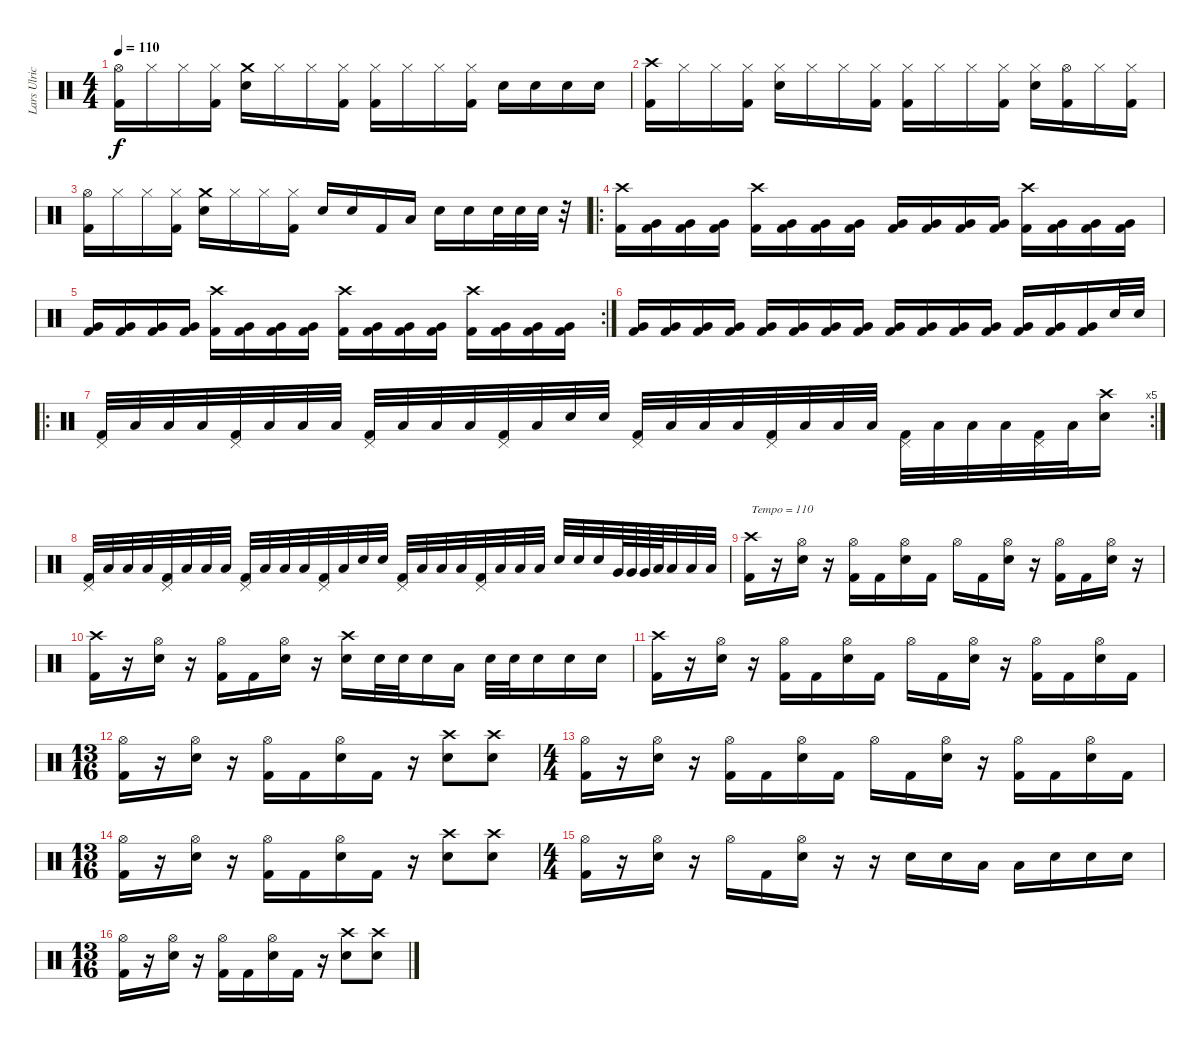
\track ("Lars Ulrich" "Lars Ulric") {instrument percussion}
\staff {score}
\articulation defaults
\ts (4 4)
\tempo 110
\clef neutral
\ks c
("Hi-Hat (open)" "Kick (hit) 2").16{dy f} "Hi-Hat (closed)".16 "Hi-Hat (closed)".16 ("Hi-Hat (closed)" "Kick (hit) 2").16 ("Crash medium (hit)" "Snare (hit) 2").16 "Hi-Hat (closed)".16 "Hi-Hat (closed)".16 ("Hi-Hat (closed)" "Kick (hit) 2").16 ("Hi-Hat (closed)" "Kick (hit) 2").16 "Hi-Hat (closed)".16 "Hi-Hat (closed)".16 ("Hi-Hat (closed)" "Kick (hit) 2").16 "Snare (hit) 2".16 "Snare (hit) 2".16 "Snare (hit) 2".16 "Snare (hit) 2".16 |
("Crash high (hit)" "Kick (hit) 2").16 "Hi-Hat (closed)".16 "Hi-Hat (closed)".16 ("Hi-Hat (closed)" "Kick (hit) 2").16 ("Hi-Hat (closed)" "Snare (hit) 2").16 "Hi-Hat (closed)".16 "Hi-Hat (closed)".16 ("Hi-Hat (closed)" "Kick (hit) 2").16 ("Hi-Hat (closed)" "Kick (hit) 2").16 "Hi-Hat (closed)".16 "Hi-Hat (closed)".16 ("Hi-Hat (closed)" "Kick (hit) 2").16 ("Hi-Hat (closed)" "Snare (hit) 2").16 ("Hi-Hat (open)" "Kick (hit) 2").16 "Hi-Hat (closed)".16 ("Hi-Hat (closed)" "Kick (hit) 2").16 |
("Hi-Hat (open)" "Kick (hit) 2").16 "Hi-Hat (closed)".16 "Hi-Hat (closed)".16 ("Hi-Hat (closed)" "Kick (hit) 2").16 ("Crash medium (hit)" "Snare (hit) 2").16 "Hi-Hat (closed)".16 "Hi-Hat (closed)".16 ("Hi-Hat (closed)" "Kick (hit) 2").16 "Snare (hit) 2".16 "Snare (hit) 2".16 "Kick (hit) 2".16 "Low Tom (hit)".16 "Snare (hit) 2".16 "Snare (hit) 2".16 "Snare (hit) 2".32 "Snare (hit) 2".32 "Snare (hit) 2".32 r.32 |
\ro
("Crash high (hit)" "Kick (hit) 2").16 ("Very Low Tom (hit)" "Kick (hit) 2").16 ("Very Low Tom (hit)" "Kick (hit) 2").16 ("Very Low Tom (hit)" "Kick (hit) 2").16 ("Crash high (hit)" "Kick (hit) 2").16 ("Very Low Tom (hit)" "Kick (hit) 2").16 ("Very Low Tom (hit)" "Kick (hit) 2").16 ("Very Low Tom (hit)" "Kick (hit) 2").16 ("Very Low Tom (hit)" "Kick (hit) 2").16 ("Very Low Tom (hit)" "Kick (hit) 2").16 ("Very Low Tom (hit)" "Kick (hit) 2").16 ("Very Low Tom (hit)" "Kick (hit) 2").16 ("Crash high (hit)" "Kick (hit) 2").16 ("Very Low Tom (hit)" "Kick (hit) 2").16 ("Very Low Tom (hit)" "Kick (hit) 2").16 ("Very Low Tom (hit)" "Kick (hit) 2").16 |
\rc 2
("Very Low Tom (hit)" "Kick (hit) 2").16 ("Very Low Tom (hit)" "Kick (hit) 2").16 ("Very Low Tom (hit)" "Kick (hit) 2").16 ("Very Low Tom (hit)" "Kick (hit) 2").16 ("Crash high (hit)" "Kick (hit) 2").16 ("Very Low Tom (hit)" "Kick (hit) 2").16 ("Very Low Tom (hit)" "Kick (hit) 2").16 ("Very Low Tom (hit)" "Kick (hit) 2").16 ("Crash high (hit)" "Kick (hit) 2").16 ("Very Low Tom (hit)" "Kick (hit) 2").16 ("Very Low Tom (hit)" "Kick (hit) 2").16 ("Very Low Tom (hit)" "Kick (hit) 2").16 ("Crash high (hit)" "Kick (hit) 2").16 ("Very Low Tom (hit)" "Kick (hit) 2").16 ("Very Low Tom (hit)" "Kick (hit) 2").16 ("Very Low Tom (hit)" "Kick (hit) 2").16 |
("Very Low Tom (hit)" "Kick (hit) 2").16 ("Very Low Tom (hit)" "Kick (hit) 2").16 ("Very Low Tom (hit)" "Kick (hit) 2").16 ("Very Low Tom (hit)" "Kick (hit) 2").16 ("Very Low Tom (hit)" "Kick (hit) 2").16 ("Very Low Tom (hit)" "Kick (hit) 2").16 ("Very Low Tom (hit)" "Kick (hit) 2").16 ("Very Low Tom (hit)" "Kick (hit) 2").16 ("Very Low Tom (hit)" "Kick (hit) 2").16 ("Very Low Tom (hit)" "Kick (hit) 2").16 ("Very Low Tom (hit)" "Kick (hit) 2").16 ("Very Low Tom (hit)" "Kick (hit) 2").16 ("Very Low Tom (hit)" "Kick (hit) 2").16 ("Very Low Tom (hit)" "Kick (hit) 2").16 ("Very Low Tom (hit)" "Kick (hit) 2").16 "Snare (hit) 2".32 "Snare (hit) 2".32 |
\ro
\rc 5
("Pedal Hi-Hat (hit)" "Kick (hit) 2").32 "Low Tom (hit)".32 "Low Tom (hit)".32 "Low Tom (hit)".32 ("Pedal Hi-Hat (hit)" "Kick (hit) 2").32 "Low Tom (hit)".32 "Low Tom (hit)".32 "Low Tom (hit)".32 ("Pedal Hi-Hat (hit)" "Kick (hit) 2").32 "Low Tom (hit)".32 "Low Tom (hit)".32 "Low Tom (hit)".32 ("Pedal Hi-Hat (hit)" "Kick (hit) 2").32 "Low Tom (hit)".32 "Snare (hit) 2".32 "Snare (hit) 2".32 ("Pedal Hi-Hat (hit)" "Kick (hit) 2").32 "Low Tom (hit)".32 "Low Tom (hit)".32 "Low Tom (hit)".32 ("Pedal Hi-Hat (hit)" "Kick (hit) 2").32 "Low Tom (hit)".32 "Low Tom (hit)".32 "Low Tom (hit)".32 ("Pedal Hi-Hat (hit)" "Kick (hit) 2").32 "Low Tom (hit)".32 "Low Tom (hit)".32 "Low Tom (hit)".32 ("Pedal Hi-Hat (hit)" "Kick (hit) 2").32 "Low Tom (hit)".32 ("Crash high (hit)" "Snare (hit) 2").16 |
("Pedal Hi-Hat (hit)" "Kick (hit) 2").32 "Low Tom (hit)".32 "Low Tom (hit)".32 "Low Tom (hit)".32 ("Pedal Hi-Hat (hit)" "Kick (hit) 2").32 "Low Tom (hit)".32 "Low Tom (hit)".32 "Low Tom (hit)".32 ("Pedal Hi-Hat (hit)" "Kick (hit) 2").32 "Low Tom (hit)".32 "Low Tom (hit)".32 "Low Tom (hit)".32 ("Pedal Hi-Hat (hit)" "Kick (hit) 2").32 "Low Tom (hit)".32 "Snare (hit) 2".32 "Snare (hit) 2".32 ("Pedal Hi-Hat (hit)" "Kick (hit) 2").32 "Low Tom (hit)".32 "Low Tom (hit)".32 "Low Tom (hit)".32 ("Pedal Hi-Hat (hit)" "Kick (hit) 2").32 "Low Tom (hit)".32 "Low Tom (hit)".32 "Low Tom (hit)".32 "Snare (hit) 2".32 "Snare (hit) 2".32 "Snare (hit) 2".32 "Very Low Tom (hit)".64 "Very Low Tom (hit)".64 "Very Low Tom (hit)".64 "Low Tom (hit)".64 "Low Tom (hit)".32 "Low Tom (hit)".32 "Low Tom (hit)".32 |
("Crash high (hit)" "Kick (hit) 2").16{txt "Tempo = 110"} r.16 ("Hi-Hat (open)" "Snare (hit) 2").16 r.16 ("Hi-Hat (open)" "Kick (hit) 2").16 "Kick (hit) 2".16 ("Hi-Hat (open)" "Snare (hit) 2").16 "Kick (hit) 2".16 "Hi-Hat (open)".16 "Kick (hit) 2".16 ("Hi-Hat (open)" "Snare (hit) 2").16 r.16 ("Hi-Hat (open)" "Kick (hit) 2").16 "Kick (hit) 2".16 ("Hi-Hat (open)" "Snare (hit) 2").16 r.16 |
("Crash high (hit)" "Kick (hit) 2").16 r.16 ("Hi-Hat (open)" "Snare (hit) 2").16 r.16 ("Hi-Hat (open)" "Kick (hit) 2").16 "Kick (hit) 2".16 ("Hi-Hat (open)" "Snare (hit) 2").16 r.16 ("Crash high (hit)" "Snare (hit) 2").16 "Snare (hit) 2".32 "Snare (hit) 2".32 "Snare (hit) 2".16 "Low Tom (hit)".16 "Snare (hit) 2".32 "Snare (hit) 2".32 "Snare (hit) 2".16 "Snare (hit) 2".16 "Snare (hit) 2".16 |
("Crash high (hit)" "Kick (hit) 2").16 r.16 ("Hi-Hat (open)" "Snare (hit) 2").16 r.16 ("Hi-Hat (open)" "Kick (hit) 2").16 "Kick (hit) 2".16 ("Hi-Hat (open)" "Snare (hit) 2").16 "Kick (hit) 2".16 "Hi-Hat (open)".16 "Kick (hit) 2".16 ("Hi-Hat (open)" "Snare (hit) 2").16 r.16 ("Hi-Hat (open)" "Kick (hit) 2").16 "Kick (hit) 2".16 ("Hi-Hat (open)" "Snare (hit) 2").16 "Kick (hit) 2".16 |
\ts (13 16)
("Hi-Hat (open)" "Kick (hit) 2").16 r.16 ("Hi-Hat (open)" "Snare (hit) 2").16 r.16 ("Hi-Hat (open)" "Kick (hit) 2").16 "Kick (hit) 2".16 ("Hi-Hat (open)" "Snare (hit) 2").16 "Kick (hit) 2".16 r.16 ("Crash high (hit)" "Snare (hit) 2").8 ("Crash high (hit)" "Snare (hit) 2").8 |
\ts (4 4)
("Hi-Hat (open)" "Kick (hit) 2").16 r.16 ("Hi-Hat (open)" "Snare (hit) 2").16 r.16 ("Hi-Hat (open)" "Kick (hit) 2").16 "Kick (hit) 2".16 ("Hi-Hat (open)" "Snare (hit) 2").16 "Kick (hit) 2".16 "Hi-Hat (open)".16 "Kick (hit) 2".16 ("Hi-Hat (open)" "Snare (hit) 2").16 r.16 ("Hi-Hat (open)" "Kick (hit) 2").16 "Kick (hit) 2".16 ("Hi-Hat (open)" "Snare (hit) 2").16 "Kick (hit) 2".16 |
\ts (13 16)
("Hi-Hat (open)" "Kick (hit) 2").16 r.16 ("Hi-Hat (open)" "Snare (hit) 2").16 r.16 ("Hi-Hat (open)" "Kick (hit) 2").16 "Kick (hit) 2".16 ("Hi-Hat (open)" "Snare (hit) 2").16 "Kick (hit) 2".16 r.16 ("Crash high (hit)" "Snare (hit) 2").8 ("Crash high (hit)" "Snare (hit) 2").8 |
\ts (4 4)
("Hi-Hat (open)" "Kick (hit) 2").16 r.16 ("Hi-Hat (open)" "Snare (hit) 2").16 r.16 "Hi-Hat (open)".16 "Kick (hit) 2".16 ("Hi-Hat (open)" "Snare (hit) 2").16 r.16 r.16 "Snare (hit) 2".16 "Snare (hit) 2".16 "Low Tom (hit)".16 "Low Tom (hit)".16 "Snare (hit) 2".16 "Snare (hit) 2".16 "Snare (hit) 2".16 |
\ts (13 16)
("Hi-Hat (open)" "Kick (hit) 2").16 r.16 ("Hi-Hat (open)" "Snare (hit) 2").16 r.16 ("Hi-Hat (open)" "Kick (hit) 2").16 "Kick (hit) 2".16 ("Hi-Hat (open)" "Snare (hit) 2").16 "Kick (hit) 2".16 r.16 ("Crash high (hit)" "Snare (hit) 2").8 ("Crash high (hit)" "Snare (hit) 2").8
